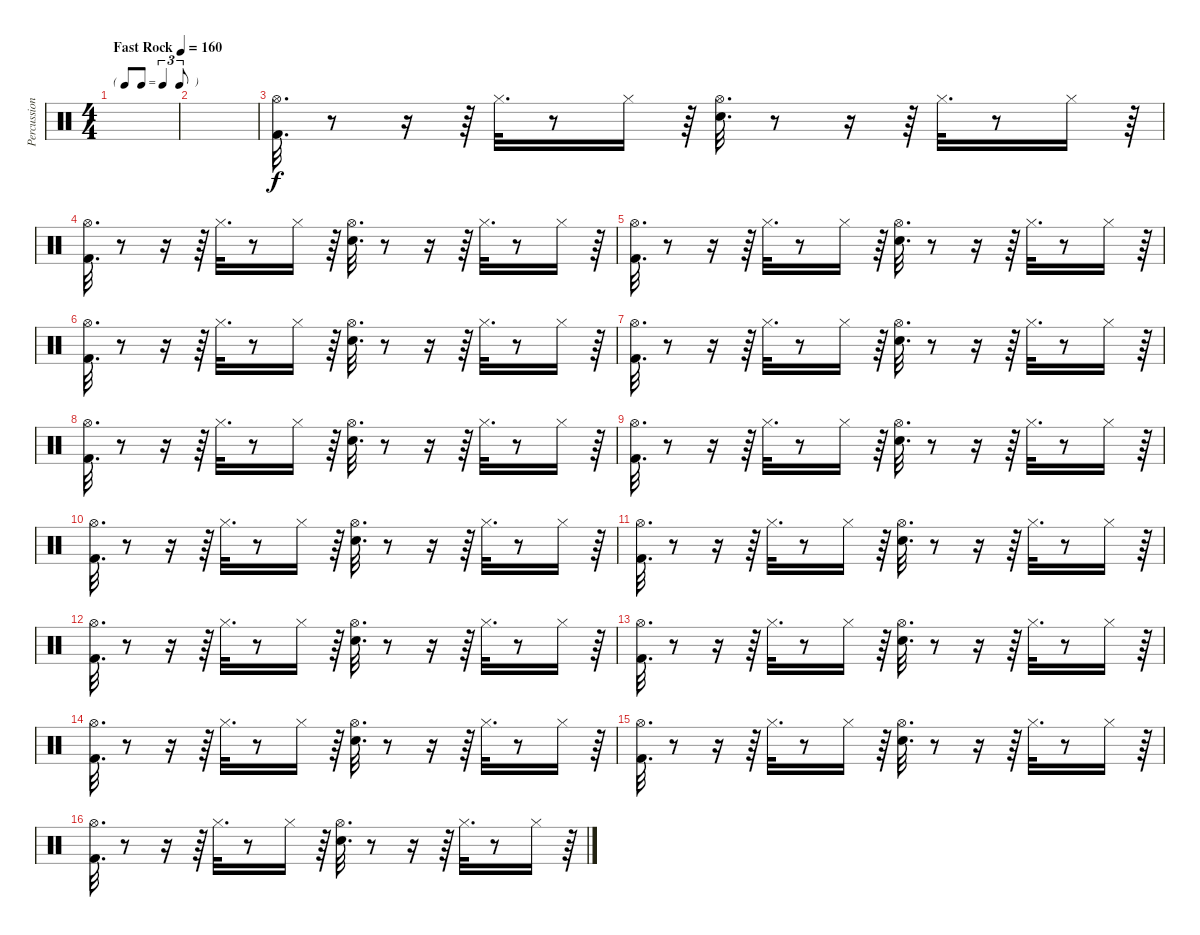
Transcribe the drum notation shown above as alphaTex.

\track ("Percussions" "Percussion") {instrument percussion}
\staff {score}
\articulation defaults
\ts (4 4)
\tf triplet8th
\tempo (160 "Fast Rock")
\clef neutral
\ks c
|
|
("Hi-Hat (open)" "Kick (hit) 2").32{d} r.8 r.16 r.64 "Hi-Hat (closed)".32{d} r.8 "Hi-Hat (closed)".16 r.64 ("Hi-Hat (open)" "Electric Snare (hit)").32{d} r.8 r.16 r.64 "Hi-Hat (closed)".32{d} r.8 "Hi-Hat (closed)".16 r.64 |
("Hi-Hat (open)" "Kick (hit) 2").32{d} r.8 r.16 r.64 "Hi-Hat (closed)".32{d} r.8 "Hi-Hat (closed)".16 r.64 ("Hi-Hat (open)" "Electric Snare (hit)").32{d} r.8 r.16 r.64 "Hi-Hat (closed)".32{d} r.8 "Hi-Hat (closed)".16 r.64 |
("Hi-Hat (open)" "Kick (hit) 2").32{d} r.8 r.16 r.64 "Hi-Hat (closed)".32{d} r.8 "Hi-Hat (closed)".16 r.64 ("Hi-Hat (open)" "Electric Snare (hit)").32{d} r.8 r.16 r.64 "Hi-Hat (closed)".32{d} r.8 "Hi-Hat (closed)".16 r.64 |
("Hi-Hat (open)" "Kick (hit) 2").32{d} r.8 r.16 r.64 "Hi-Hat (closed)".32{d} r.8 "Hi-Hat (closed)".16 r.64 ("Hi-Hat (open)" "Electric Snare (hit)").32{d} r.8 r.16 r.64 "Hi-Hat (closed)".32{d} r.8 "Hi-Hat (closed)".16 r.64 |
("Hi-Hat (open)" "Kick (hit) 2").32{d} r.8 r.16 r.64 "Hi-Hat (closed)".32{d} r.8 "Hi-Hat (closed)".16 r.64 ("Hi-Hat (open)" "Electric Snare (hit)").32{d} r.8 r.16 r.64 "Hi-Hat (closed)".32{d} r.8 "Hi-Hat (closed)".16 r.64 |
("Hi-Hat (open)" "Kick (hit) 2").32{d} r.8 r.16 r.64 "Hi-Hat (closed)".32{d} r.8 "Hi-Hat (closed)".16 r.64 ("Hi-Hat (open)" "Electric Snare (hit)").32{d} r.8 r.16 r.64 "Hi-Hat (closed)".32{d} r.8 "Hi-Hat (closed)".16 r.64 |
("Hi-Hat (open)" "Kick (hit) 2").32{d} r.8 r.16 r.64 "Hi-Hat (closed)".32{d} r.8 "Hi-Hat (closed)".16 r.64 ("Hi-Hat (open)" "Electric Snare (hit)").32{d} r.8 r.16 r.64 "Hi-Hat (closed)".32{d} r.8 "Hi-Hat (closed)".16 r.64 |
("Hi-Hat (open)" "Kick (hit) 2").32{d} r.8 r.16 r.64 "Hi-Hat (closed)".32{d} r.8 "Hi-Hat (closed)".16 r.64 ("Hi-Hat (open)" "Electric Snare (hit)").32{d} r.8 r.16 r.64 "Hi-Hat (closed)".32{d} r.8 "Hi-Hat (closed)".16 r.64 |
("Hi-Hat (open)" "Kick (hit) 2").32{d} r.8 r.16 r.64 "Hi-Hat (closed)".32{d} r.8 "Hi-Hat (closed)".16 r.64 ("Hi-Hat (open)" "Electric Snare (hit)").32{d} r.8 r.16 r.64 "Hi-Hat (closed)".32{d} r.8 "Hi-Hat (closed)".16 r.64 |
("Hi-Hat (open)" "Kick (hit) 2").32{d} r.8 r.16 r.64 "Hi-Hat (closed)".32{d} r.8 "Hi-Hat (closed)".16 r.64 ("Hi-Hat (open)" "Electric Snare (hit)").32{d} r.8 r.16 r.64 "Hi-Hat (closed)".32{d} r.8 "Hi-Hat (closed)".16 r.64 |
("Hi-Hat (open)" "Kick (hit) 2").32{d} r.8 r.16 r.64 "Hi-Hat (closed)".32{d} r.8 "Hi-Hat (closed)".16 r.64 ("Hi-Hat (open)" "Electric Snare (hit)").32{d} r.8 r.16 r.64 "Hi-Hat (closed)".32{d} r.8 "Hi-Hat (closed)".16 r.64 |
("Hi-Hat (open)" "Kick (hit) 2").32{d} r.8 r.16 r.64 "Hi-Hat (closed)".32{d} r.8 "Hi-Hat (closed)".16 r.64 ("Hi-Hat (open)" "Electric Snare (hit)").32{d} r.8 r.16 r.64 "Hi-Hat (closed)".32{d} r.8 "Hi-Hat (closed)".16 r.64 |
("Hi-Hat (open)" "Kick (hit) 2").32{d} r.8 r.16 r.64 "Hi-Hat (closed)".32{d} r.8 "Hi-Hat (closed)".16 r.64 ("Hi-Hat (open)" "Electric Snare (hit)").32{d} r.8 r.16 r.64 "Hi-Hat (closed)".32{d} r.8 "Hi-Hat (closed)".16 r.64 |
("Hi-Hat (open)" "Kick (hit) 2").32{d} r.8 r.16 r.64 "Hi-Hat (closed)".32{d} r.8 "Hi-Hat (closed)".16 r.64 ("Hi-Hat (open)" "Electric Snare (hit)").32{d} r.8 r.16 r.64 "Hi-Hat (closed)".32{d} r.8 "Hi-Hat (closed)".16 r.64
